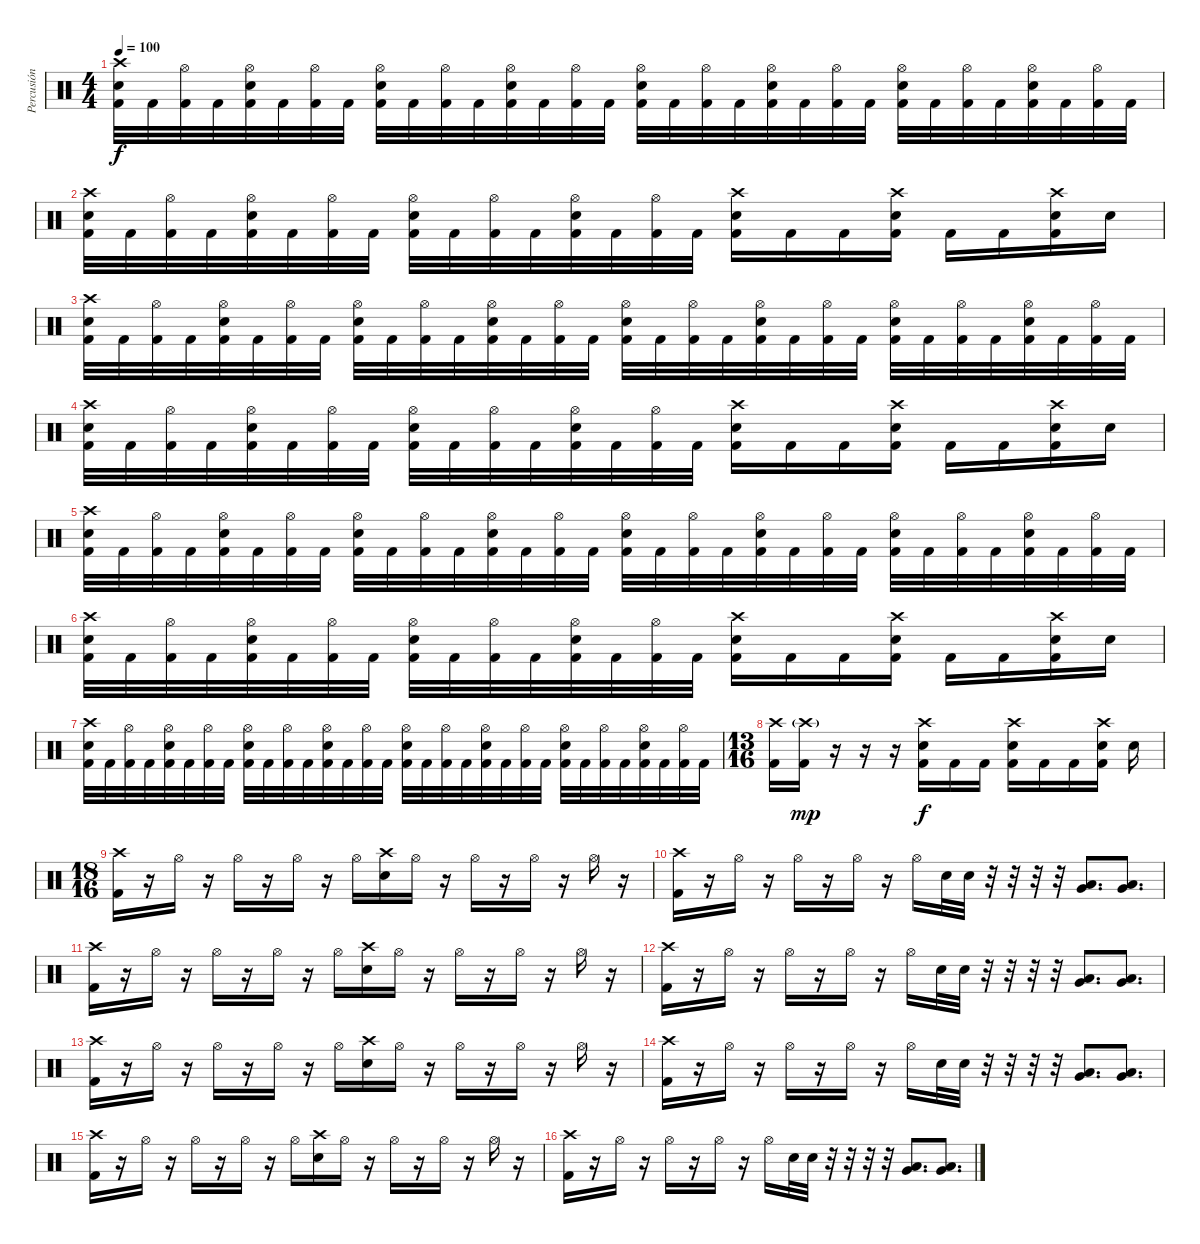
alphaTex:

\track ("Percusión" "Percusión") {instrument percussion}
\staff {score}
\articulation defaults
\ts (4 4)
\tempo 100
\clef neutral
\ks c
("Crash high (hit)" "Electric Snare (hit)" "Kick (hit) 2").32{dy f} "Kick (hit) 2".32 ("Hi-Hat (open)" "Kick (hit) 2").32 "Kick (hit) 2".32 ("Hi-Hat (open)" "Electric Snare (hit)" "Kick (hit) 2").32 "Kick (hit) 2".32 ("Hi-Hat (open)" "Kick (hit) 2").32 "Kick (hit) 2".32 ("Hi-Hat (open)" "Electric Snare (hit)" "Kick (hit) 2").32 "Kick (hit) 2".32 ("Hi-Hat (open)" "Kick (hit) 2").32 "Kick (hit) 2".32 ("Hi-Hat (open)" "Electric Snare (hit)" "Kick (hit) 2").32 "Kick (hit) 2".32 ("Hi-Hat (open)" "Kick (hit) 2").32 "Kick (hit) 2".32 ("Hi-Hat (open)" "Electric Snare (hit)" "Kick (hit) 2").32 "Kick (hit) 2".32 ("Hi-Hat (open)" "Kick (hit) 2").32 "Kick (hit) 2".32 ("Hi-Hat (open)" "Electric Snare (hit)" "Kick (hit) 2").32 "Kick (hit) 2".32 ("Hi-Hat (open)" "Kick (hit) 2").32 "Kick (hit) 2".32 ("Hi-Hat (open)" "Electric Snare (hit)" "Kick (hit) 2").32 "Kick (hit) 2".32 ("Hi-Hat (open)" "Kick (hit) 2").32 "Kick (hit) 2".32 ("Hi-Hat (open)" "Electric Snare (hit)" "Kick (hit) 2").32 "Kick (hit) 2".32 ("Hi-Hat (open)" "Kick (hit) 2").32 "Kick (hit) 2".32 |
("Crash high (hit)" "Electric Snare (hit)" "Kick (hit) 2").32 "Kick (hit) 2".32 ("Hi-Hat (open)" "Kick (hit) 2").32 "Kick (hit) 2".32 ("Hi-Hat (open)" "Electric Snare (hit)" "Kick (hit) 2").32 "Kick (hit) 2".32 ("Hi-Hat (open)" "Kick (hit) 2").32 "Kick (hit) 2".32 ("Hi-Hat (open)" "Electric Snare (hit)" "Kick (hit) 2").32 "Kick (hit) 2".32 ("Hi-Hat (open)" "Kick (hit) 2").32 "Kick (hit) 2".32 ("Hi-Hat (open)" "Electric Snare (hit)" "Kick (hit) 2").32 "Kick (hit) 2".32 ("Hi-Hat (open)" "Kick (hit) 2").32 "Kick (hit) 2".32 ("Crash high (hit)" "Electric Snare (hit)" "Kick (hit) 2").16 "Kick (hit) 2".16 "Kick (hit) 2".16 ("Crash high (hit)" "Electric Snare (hit)" "Kick (hit) 2").16 "Kick (hit) 2".16 "Kick (hit) 2".16 ("Crash high (hit)" "Electric Snare (hit)" "Kick (hit) 2").16 "Electric Snare (hit)".16 |
("Crash high (hit)" "Electric Snare (hit)" "Kick (hit) 2").32 "Kick (hit) 2".32 ("Hi-Hat (open)" "Kick (hit) 2").32 "Kick (hit) 2".32 ("Hi-Hat (open)" "Electric Snare (hit)" "Kick (hit) 2").32 "Kick (hit) 2".32 ("Hi-Hat (open)" "Kick (hit) 2").32 "Kick (hit) 2".32 ("Hi-Hat (open)" "Electric Snare (hit)" "Kick (hit) 2").32 "Kick (hit) 2".32 ("Hi-Hat (open)" "Kick (hit) 2").32 "Kick (hit) 2".32 ("Hi-Hat (open)" "Electric Snare (hit)" "Kick (hit) 2").32 "Kick (hit) 2".32 ("Hi-Hat (open)" "Kick (hit) 2").32 "Kick (hit) 2".32 ("Hi-Hat (open)" "Electric Snare (hit)" "Kick (hit) 2").32 "Kick (hit) 2".32 ("Hi-Hat (open)" "Kick (hit) 2").32 "Kick (hit) 2".32 ("Hi-Hat (open)" "Electric Snare (hit)" "Kick (hit) 2").32 "Kick (hit) 2".32 ("Hi-Hat (open)" "Kick (hit) 2").32 "Kick (hit) 2".32 ("Hi-Hat (open)" "Electric Snare (hit)" "Kick (hit) 2").32 "Kick (hit) 2".32 ("Hi-Hat (open)" "Kick (hit) 2").32 "Kick (hit) 2".32 ("Hi-Hat (open)" "Electric Snare (hit)" "Kick (hit) 2").32 "Kick (hit) 2".32 ("Hi-Hat (open)" "Kick (hit) 2").32 "Kick (hit) 2".32 |
("Crash high (hit)" "Electric Snare (hit)" "Kick (hit) 2").32 "Kick (hit) 2".32 ("Hi-Hat (open)" "Kick (hit) 2").32 "Kick (hit) 2".32 ("Hi-Hat (open)" "Electric Snare (hit)" "Kick (hit) 2").32 "Kick (hit) 2".32 ("Hi-Hat (open)" "Kick (hit) 2").32 "Kick (hit) 2".32 ("Hi-Hat (open)" "Electric Snare (hit)" "Kick (hit) 2").32 "Kick (hit) 2".32 ("Hi-Hat (open)" "Kick (hit) 2").32 "Kick (hit) 2".32 ("Hi-Hat (open)" "Electric Snare (hit)" "Kick (hit) 2").32 "Kick (hit) 2".32 ("Hi-Hat (open)" "Kick (hit) 2").32 "Kick (hit) 2".32 ("Crash high (hit)" "Electric Snare (hit)" "Kick (hit) 2").16 "Kick (hit) 2".16 "Kick (hit) 2".16 ("Crash high (hit)" "Electric Snare (hit)" "Kick (hit) 2").16 "Kick (hit) 2".16 "Kick (hit) 2".16 ("Crash high (hit)" "Electric Snare (hit)" "Kick (hit) 2").16 "Electric Snare (hit)".16 |
("Crash high (hit)" "Electric Snare (hit)" "Kick (hit) 2").32 "Kick (hit) 2".32 ("Hi-Hat (open)" "Kick (hit) 2").32 "Kick (hit) 2".32 ("Hi-Hat (open)" "Electric Snare (hit)" "Kick (hit) 2").32 "Kick (hit) 2".32 ("Hi-Hat (open)" "Kick (hit) 2").32 "Kick (hit) 2".32 ("Hi-Hat (open)" "Electric Snare (hit)" "Kick (hit) 2").32 "Kick (hit) 2".32 ("Hi-Hat (open)" "Kick (hit) 2").32 "Kick (hit) 2".32 ("Hi-Hat (open)" "Electric Snare (hit)" "Kick (hit) 2").32 "Kick (hit) 2".32 ("Hi-Hat (open)" "Kick (hit) 2").32 "Kick (hit) 2".32 ("Hi-Hat (open)" "Electric Snare (hit)" "Kick (hit) 2").32 "Kick (hit) 2".32 ("Hi-Hat (open)" "Kick (hit) 2").32 "Kick (hit) 2".32 ("Hi-Hat (open)" "Electric Snare (hit)" "Kick (hit) 2").32 "Kick (hit) 2".32 ("Hi-Hat (open)" "Kick (hit) 2").32 "Kick (hit) 2".32 ("Hi-Hat (open)" "Electric Snare (hit)" "Kick (hit) 2").32 "Kick (hit) 2".32 ("Hi-Hat (open)" "Kick (hit) 2").32 "Kick (hit) 2".32 ("Hi-Hat (open)" "Electric Snare (hit)" "Kick (hit) 2").32 "Kick (hit) 2".32 ("Hi-Hat (open)" "Kick (hit) 2").32 "Kick (hit) 2".32 |
("Crash high (hit)" "Electric Snare (hit)" "Kick (hit) 2").32 "Kick (hit) 2".32 ("Hi-Hat (open)" "Kick (hit) 2").32 "Kick (hit) 2".32 ("Hi-Hat (open)" "Electric Snare (hit)" "Kick (hit) 2").32 "Kick (hit) 2".32 ("Hi-Hat (open)" "Kick (hit) 2").32 "Kick (hit) 2".32 ("Hi-Hat (open)" "Electric Snare (hit)" "Kick (hit) 2").32 "Kick (hit) 2".32 ("Hi-Hat (open)" "Kick (hit) 2").32 "Kick (hit) 2".32 ("Hi-Hat (open)" "Electric Snare (hit)" "Kick (hit) 2").32 "Kick (hit) 2".32 ("Hi-Hat (open)" "Kick (hit) 2").32 "Kick (hit) 2".32 ("Crash high (hit)" "Electric Snare (hit)" "Kick (hit) 2").16 "Kick (hit) 2".16 "Kick (hit) 2".16 ("Crash high (hit)" "Electric Snare (hit)" "Kick (hit) 2").16 "Kick (hit) 2".16 "Kick (hit) 2".16 ("Crash high (hit)" "Electric Snare (hit)" "Kick (hit) 2").16 "Electric Snare (hit)".16 |
("Crash high (hit)" "Electric Snare (hit)" "Kick (hit) 2").32 "Kick (hit) 2".32 ("Hi-Hat (open)" "Kick (hit) 2").32 "Kick (hit) 2".32 ("Hi-Hat (open)" "Electric Snare (hit)" "Kick (hit) 2").32 "Kick (hit) 2".32 ("Hi-Hat (open)" "Kick (hit) 2").32 "Kick (hit) 2".32 ("Hi-Hat (open)" "Electric Snare (hit)" "Kick (hit) 2").32 "Kick (hit) 2".32 ("Hi-Hat (open)" "Kick (hit) 2").32 "Kick (hit) 2".32 ("Hi-Hat (open)" "Electric Snare (hit)" "Kick (hit) 2").32 "Kick (hit) 2".32 ("Hi-Hat (open)" "Kick (hit) 2").32 "Kick (hit) 2".32 ("Hi-Hat (open)" "Electric Snare (hit)" "Kick (hit) 2").32 "Kick (hit) 2".32 ("Hi-Hat (open)" "Kick (hit) 2").32 "Kick (hit) 2".32 ("Hi-Hat (open)" "Electric Snare (hit)" "Kick (hit) 2").32 "Kick (hit) 2".32 ("Hi-Hat (open)" "Kick (hit) 2").32 "Kick (hit) 2".32 ("Hi-Hat (open)" "Electric Snare (hit)" "Kick (hit) 2").32 "Kick (hit) 2".32 ("Hi-Hat (open)" "Kick (hit) 2").32 "Kick (hit) 2".32 ("Hi-Hat (open)" "Electric Snare (hit)" "Kick (hit) 2").32 "Kick (hit) 2".32 ("Hi-Hat (open)" "Kick (hit) 2").32 "Kick (hit) 2".32 |
\ts (13 16)
("Crash high (hit)" "Kick (hit) 2").16 ("Crash high (hit)"{g} "Kick (hit) 2").16{dy mp} r.16 r.16 r.16 ("Crash high (hit)" "Electric Snare (hit)" "Kick (hit) 2").16{dy f} "Kick (hit) 2".16 "Kick (hit) 2".16 ("Crash high (hit)" "Electric Snare (hit)" "Kick (hit) 2").16 "Kick (hit) 2".16 "Kick (hit) 2".16 ("Crash high (hit)" "Electric Snare (hit)" "Kick (hit) 2").16 "Electric Snare (hit)".16 |
\ts (18 16)
("Crash high (hit)" "Kick (hit) 2").16 r.16 "Hi-Hat (open)".16 r.16 "Hi-Hat (open)".16 r.16 "Hi-Hat (open)".16 r.16 "Hi-Hat (open)".16 ("Crash high (hit)" "Electric Snare (hit)").16 "Hi-Hat (open)".16 r.16 "Hi-Hat (open)".16 r.16 "Hi-Hat (open)".16 r.16 "Hi-Hat (open)".16 r.16 |
("Crash high (hit)" "Kick (hit) 2").16 r.16 "Hi-Hat (open)".16 r.16 "Hi-Hat (open)".16 r.16 "Hi-Hat (open)".16 r.16 "Hi-Hat (open)".16 "Electric Snare (hit)".32 "Electric Snare (hit)".32 r.32 r.32 r.32 r.32 ("Low Floor Tom (hit)" "Very Low Tom (hit)").8{d} ("Very Low Tom (hit)" "Low Floor Tom (hit)").8{d} |
("Crash high (hit)" "Kick (hit) 2").16 r.16 "Hi-Hat (open)".16 r.16 "Hi-Hat (open)".16 r.16 "Hi-Hat (open)".16 r.16 "Hi-Hat (open)".16 ("Crash high (hit)" "Electric Snare (hit)").16 "Hi-Hat (open)".16 r.16 "Hi-Hat (open)".16 r.16 "Hi-Hat (open)".16 r.16 "Hi-Hat (open)".16 r.16 |
("Crash high (hit)" "Kick (hit) 2").16 r.16 "Hi-Hat (open)".16 r.16 "Hi-Hat (open)".16 r.16 "Hi-Hat (open)".16 r.16 "Hi-Hat (open)".16 "Electric Snare (hit)".32 "Electric Snare (hit)".32 r.32 r.32 r.32 r.32 ("Low Floor Tom (hit)" "Very Low Tom (hit)").8{d} ("Very Low Tom (hit)" "Low Floor Tom (hit)").8{d} |
("Crash high (hit)" "Kick (hit) 2").16 r.16 "Hi-Hat (open)".16 r.16 "Hi-Hat (open)".16 r.16 "Hi-Hat (open)".16 r.16 "Hi-Hat (open)".16 ("Crash high (hit)" "Electric Snare (hit)").16 "Hi-Hat (open)".16 r.16 "Hi-Hat (open)".16 r.16 "Hi-Hat (open)".16 r.16 "Hi-Hat (open)".16 r.16 |
("Crash high (hit)" "Kick (hit) 2").16 r.16 "Hi-Hat (open)".16 r.16 "Hi-Hat (open)".16 r.16 "Hi-Hat (open)".16 r.16 "Hi-Hat (open)".16 "Electric Snare (hit)".32 "Electric Snare (hit)".32 r.32 r.32 r.32 r.32 ("Low Floor Tom (hit)" "Very Low Tom (hit)").8{d} ("Very Low Tom (hit)" "Low Floor Tom (hit)").8{d} |
("Crash high (hit)" "Kick (hit) 2").16 r.16 "Hi-Hat (open)".16 r.16 "Hi-Hat (open)".16 r.16 "Hi-Hat (open)".16 r.16 "Hi-Hat (open)".16 ("Crash high (hit)" "Electric Snare (hit)").16 "Hi-Hat (open)".16 r.16 "Hi-Hat (open)".16 r.16 "Hi-Hat (open)".16 r.16 "Hi-Hat (open)".16 r.16 |
("Crash high (hit)" "Kick (hit) 2").16 r.16 "Hi-Hat (open)".16 r.16 "Hi-Hat (open)".16 r.16 "Hi-Hat (open)".16 r.16 "Hi-Hat (open)".16 "Electric Snare (hit)".32 "Electric Snare (hit)".32 r.32 r.32 r.32 r.32 ("Low Floor Tom (hit)" "Very Low Tom (hit)").8{d} ("Very Low Tom (hit)" "Low Floor Tom (hit)").8{d}
